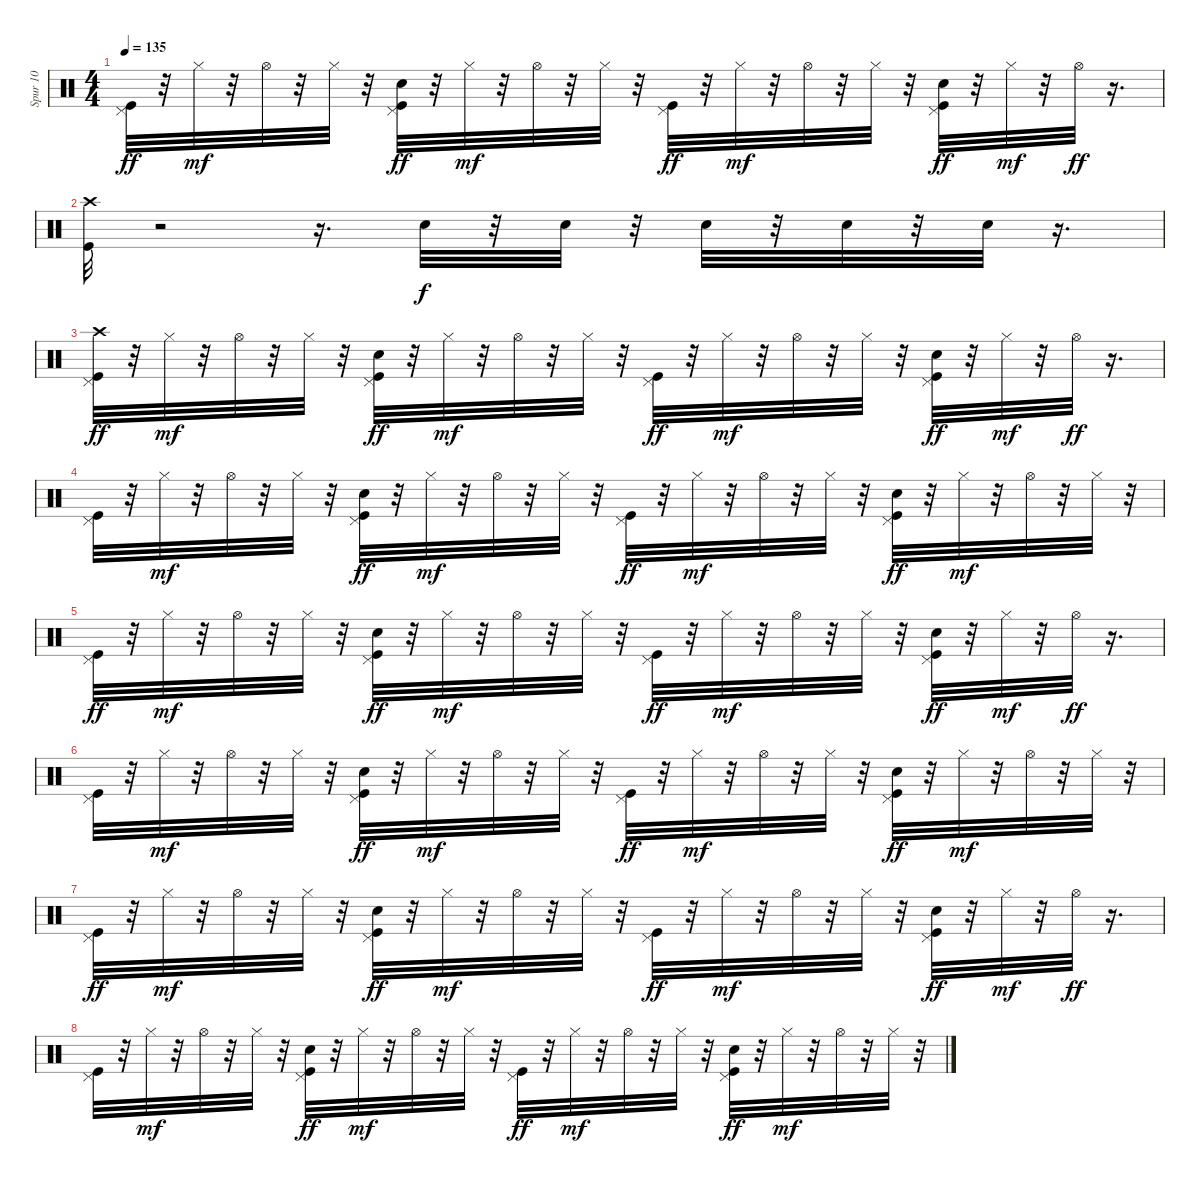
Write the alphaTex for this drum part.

\track ("Spur 10" "Spur 10") {instrument percussion}
\staff {score}
\articulation defaults
\ts (4 4)
\tempo 135
\clef neutral
\ks c
("Kick (hit)" "Pedal Hi-Hat (hit)").32{dy ff} r.32 "Hi-Hat (closed)".32{dy mf} r.32 "Hi-Hat (open)".32 r.32 "Hi-Hat (closed)".32 r.32 ("Kick (hit)" "Hand Clap (hit)" "Pedal Hi-Hat (hit)").32{dy ff} r.32 "Hi-Hat (closed)".32{dy mf} r.32 "Hi-Hat (open)".32 r.32 "Hi-Hat (closed)".32 r.32 ("Kick (hit)" "Pedal Hi-Hat (hit)").32{dy ff} r.32 "Hi-Hat (closed)".32{dy mf} r.32 "Hi-Hat (open)".32 r.32 "Hi-Hat (closed)".32 r.32 ("Kick (hit)" "Hand Clap (hit)" "Pedal Hi-Hat (hit)").32{dy ff} r.32 "Hi-Hat (closed)".32{dy mf} r.32 "Hi-Hat (open)".32{dy ff} r.16{d} |
("Crash high (hit)" "Kick (hit)").32 r.2 r.16{d} "Snare (hit) 2".32{dy f} r.32 "Snare (hit) 2".32 r.32 "Snare (hit) 2".32 r.32 "Snare (hit) 2".32 r.32 "Snare (hit) 2".32 r.16{d} |
("Crash high (hit)" "Kick (hit)" "Pedal Hi-Hat (hit)").32{dy ff} r.32 "Hi-Hat (closed)".32{dy mf} r.32 "Hi-Hat (open)".32 r.32 "Hi-Hat (closed)".32 r.32 ("Kick (hit)" "Hand Clap (hit)" "Pedal Hi-Hat (hit)").32{dy ff} r.32 "Hi-Hat (closed)".32{dy mf} r.32 "Hi-Hat (open)".32 r.32 "Hi-Hat (closed)".32 r.32 ("Kick (hit)" "Pedal Hi-Hat (hit)").32{dy ff} r.32 "Hi-Hat (closed)".32{dy mf} r.32 "Hi-Hat (open)".32 r.32 "Hi-Hat (closed)".32 r.32 ("Kick (hit)" "Hand Clap (hit)" "Pedal Hi-Hat (hit)").32{dy ff} r.32 "Hi-Hat (closed)".32{dy mf} r.32 "Hi-Hat (open)".32{dy ff} r.16{d} |
("Kick (hit)" "Pedal Hi-Hat (hit)").32 r.32 "Hi-Hat (closed)".32{dy mf} r.32 "Hi-Hat (open)".32 r.32 "Hi-Hat (closed)".32 r.32 ("Kick (hit)" "Hand Clap (hit)" "Pedal Hi-Hat (hit)").32{dy ff} r.32 "Hi-Hat (closed)".32{dy mf} r.32 "Hi-Hat (open)".32 r.32 "Hi-Hat (closed)".32 r.32 ("Kick (hit)" "Pedal Hi-Hat (hit)").32{dy ff} r.32 "Hi-Hat (closed)".32{dy mf} r.32 "Hi-Hat (open)".32 r.32 "Hi-Hat (closed)".32 r.32 ("Kick (hit)" "Hand Clap (hit)" "Pedal Hi-Hat (hit)").32{dy ff} r.32 "Hi-Hat (closed)".32{dy mf} r.32 "Hi-Hat (open)".32 r.32 "Hi-Hat (closed)".32 r.32 |
("Kick (hit)" "Pedal Hi-Hat (hit)").32{dy ff} r.32 "Hi-Hat (closed)".32{dy mf} r.32 "Hi-Hat (open)".32 r.32 "Hi-Hat (closed)".32 r.32 ("Kick (hit)" "Hand Clap (hit)" "Pedal Hi-Hat (hit)").32{dy ff} r.32 "Hi-Hat (closed)".32{dy mf} r.32 "Hi-Hat (open)".32 r.32 "Hi-Hat (closed)".32 r.32 ("Kick (hit)" "Pedal Hi-Hat (hit)").32{dy ff} r.32 "Hi-Hat (closed)".32{dy mf} r.32 "Hi-Hat (open)".32 r.32 "Hi-Hat (closed)".32 r.32 ("Kick (hit)" "Hand Clap (hit)" "Pedal Hi-Hat (hit)").32{dy ff} r.32 "Hi-Hat (closed)".32{dy mf} r.32 "Hi-Hat (open)".32{dy ff} r.16{d} |
("Kick (hit)" "Pedal Hi-Hat (hit)").32 r.32 "Hi-Hat (closed)".32{dy mf} r.32 "Hi-Hat (open)".32 r.32 "Hi-Hat (closed)".32 r.32 ("Kick (hit)" "Hand Clap (hit)" "Pedal Hi-Hat (hit)").32{dy ff} r.32 "Hi-Hat (closed)".32{dy mf} r.32 "Hi-Hat (open)".32 r.32 "Hi-Hat (closed)".32 r.32 ("Kick (hit)" "Pedal Hi-Hat (hit)").32{dy ff} r.32 "Hi-Hat (closed)".32{dy mf} r.32 "Hi-Hat (open)".32 r.32 "Hi-Hat (closed)".32 r.32 ("Kick (hit)" "Hand Clap (hit)" "Pedal Hi-Hat (hit)").32{dy ff} r.32 "Hi-Hat (closed)".32{dy mf} r.32 "Hi-Hat (open)".32 r.32 "Hi-Hat (closed)".32 r.32 |
("Kick (hit)" "Pedal Hi-Hat (hit)").32{dy ff} r.32 "Hi-Hat (closed)".32{dy mf} r.32 "Hi-Hat (open)".32 r.32 "Hi-Hat (closed)".32 r.32 ("Kick (hit)" "Hand Clap (hit)" "Pedal Hi-Hat (hit)").32{dy ff} r.32 "Hi-Hat (closed)".32{dy mf} r.32 "Hi-Hat (open)".32 r.32 "Hi-Hat (closed)".32 r.32 ("Kick (hit)" "Pedal Hi-Hat (hit)").32{dy ff} r.32 "Hi-Hat (closed)".32{dy mf} r.32 "Hi-Hat (open)".32 r.32 "Hi-Hat (closed)".32 r.32 ("Kick (hit)" "Hand Clap (hit)" "Pedal Hi-Hat (hit)").32{dy ff} r.32 "Hi-Hat (closed)".32{dy mf} r.32 "Hi-Hat (open)".32{dy ff} r.16{d} |
("Kick (hit)" "Pedal Hi-Hat (hit)").32 r.32 "Hi-Hat (closed)".32{dy mf} r.32 "Hi-Hat (open)".32 r.32 "Hi-Hat (closed)".32 r.32 ("Kick (hit)" "Hand Clap (hit)" "Pedal Hi-Hat (hit)").32{dy ff} r.32 "Hi-Hat (closed)".32{dy mf} r.32 "Hi-Hat (open)".32 r.32 "Hi-Hat (closed)".32 r.32 ("Kick (hit)" "Pedal Hi-Hat (hit)").32{dy ff} r.32 "Hi-Hat (closed)".32{dy mf} r.32 "Hi-Hat (open)".32 r.32 "Hi-Hat (closed)".32 r.32 ("Kick (hit)" "Hand Clap (hit)" "Pedal Hi-Hat (hit)").32{dy ff} r.32 "Hi-Hat (closed)".32{dy mf} r.32 "Hi-Hat (open)".32 r.32 "Hi-Hat (closed)".32 r.32
